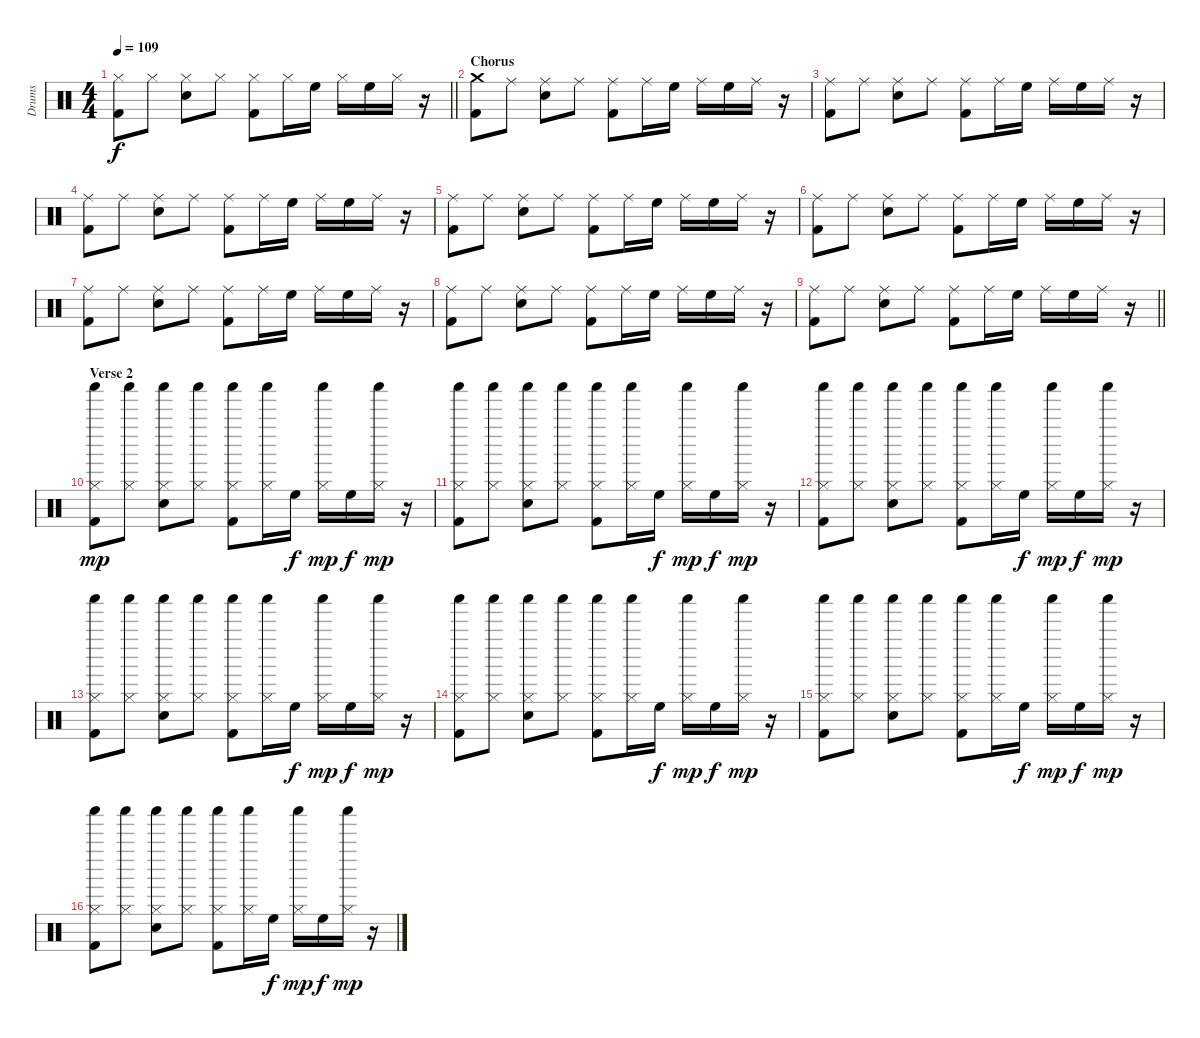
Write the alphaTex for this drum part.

\track ("Drums" "Drums") {instrument percussion}
\staff {score}
\articulation defaults
\ts (4 4)
\tempo 109
\clef neutral
\barLineRight lightlight
\ks c
("Hi-Hat (closed)" "Kick (hit) 2").8{dy f} "Hi-Hat (closed)".8 ("Hi-Hat (closed)" "Electric Snare (hit)").8 "Hi-Hat (closed)".8 ("Hi-Hat (closed)" "Kick (hit) 2").8 "Hi-Hat (closed)".16 "High Floor Tom (hit)".16 "Hi-Hat (closed)".16 "High Floor Tom (hit)".16 "Hi-Hat (closed)".16 r.16 |
\section ("" "Chorus")
("Crash medium (hit)" "Kick (hit) 2").8 "Ride (middle)".8 ("Ride (middle)" "Electric Snare (hit)").8 "Ride (middle)".8 ("Ride (middle)" "Kick (hit) 2").8 "Ride (middle)".16 "High Floor Tom (hit)".16 "Ride (middle)".16 "High Floor Tom (hit)".16 "Ride (middle)".16 r.16 |
("Ride (middle)" "Kick (hit) 2").8 "Ride (middle)".8 ("Ride (middle)" "Electric Snare (hit)").8 "Ride (middle)".8 ("Ride (middle)" "Kick (hit) 2").8 "Ride (middle)".16 "High Floor Tom (hit)".16 "Ride (middle)".16 "High Floor Tom (hit)".16 "Ride (middle)".16 r.16 |
("Ride (middle)" "Kick (hit) 2").8 "Ride (middle)".8 ("Ride (middle)" "Electric Snare (hit)").8 "Ride (middle)".8 ("Ride (middle)" "Kick (hit) 2").8 "Ride (middle)".16 "High Floor Tom (hit)".16 "Ride (middle)".16 "High Floor Tom (hit)".16 "Ride (middle)".16 r.16 |
("Ride (middle)" "Kick (hit) 2").8 "Ride (middle)".8 ("Ride (middle)" "Electric Snare (hit)").8 "Ride (middle)".8 ("Ride (middle)" "Kick (hit) 2").8 "Ride (middle)".16 "High Floor Tom (hit)".16 "Ride (middle)".16 "High Floor Tom (hit)".16 "Ride (middle)".16 r.16 |
("Ride (middle)" "Kick (hit) 2").8 "Ride (middle)".8 ("Ride (middle)" "Electric Snare (hit)").8 "Ride (middle)".8 ("Ride (middle)" "Kick (hit) 2").8 "Ride (middle)".16 "High Floor Tom (hit)".16 "Ride (middle)".16 "High Floor Tom (hit)".16 "Ride (middle)".16 r.16 |
("Ride (middle)" "Kick (hit) 2").8 "Ride (middle)".8 ("Ride (middle)" "Electric Snare (hit)").8 "Ride (middle)".8 ("Ride (middle)" "Kick (hit) 2").8 "Ride (middle)".16 "High Floor Tom (hit)".16 "Ride (middle)".16 "High Floor Tom (hit)".16 "Ride (middle)".16 r.16 |
("Ride (middle)" "Kick (hit) 2").8 "Ride (middle)".8 ("Ride (middle)" "Electric Snare (hit)").8 "Ride (middle)".8 ("Ride (middle)" "Kick (hit) 2").8 "Ride (middle)".16 "High Floor Tom (hit)".16 "Ride (middle)".16 "High Floor Tom (hit)".16 "Ride (middle)".16 r.16 |
\barLineRight lightlight
("Ride (middle)" "Kick (hit) 2").8 "Ride (middle)".8 ("Ride (middle)" "Electric Snare (hit)").8 "Ride (middle)".8 ("Ride (middle)" "Kick (hit) 2").8 "Ride (middle)".16 "High Floor Tom (hit)".16 "Ride (middle)".16 "High Floor Tom (hit)".16 "Ride (middle)".16 r.16 |
\section ("" "Verse 2")
("Hi-Hat (closed)" "Shaker (hit)" "Kick (hit) 2").8{dy mp} ("Hi-Hat (closed)" "Shaker (hit)").8 ("Hi-Hat (closed)" "Shaker (hit)" "Electric Snare (hit)").8 ("Hi-Hat (closed)" "Shaker (hit)").8 ("Hi-Hat (closed)" "Shaker (hit)" "Kick (hit) 2").8 ("Hi-Hat (closed)" "Shaker (hit)").16 "High Floor Tom (hit)".16{dy f} ("Hi-Hat (closed)" "Shaker (hit)").16{dy mp} "High Floor Tom (hit)".16{dy f} ("Hi-Hat (closed)" "Shaker (hit)").16{dy mp} r.16 |
("Hi-Hat (closed)" "Shaker (hit)" "Kick (hit) 2").8 ("Hi-Hat (closed)" "Shaker (hit)").8 ("Hi-Hat (closed)" "Shaker (hit)" "Electric Snare (hit)").8 ("Hi-Hat (closed)" "Shaker (hit)").8 ("Hi-Hat (closed)" "Shaker (hit)" "Kick (hit) 2").8 ("Hi-Hat (closed)" "Shaker (hit)").16 "High Floor Tom (hit)".16{dy f} ("Hi-Hat (closed)" "Shaker (hit)").16{dy mp} "High Floor Tom (hit)".16{dy f} ("Hi-Hat (closed)" "Shaker (hit)").16{dy mp} r.16 |
("Hi-Hat (closed)" "Shaker (hit)" "Kick (hit) 2").8 ("Hi-Hat (closed)" "Shaker (hit)").8 ("Hi-Hat (closed)" "Shaker (hit)" "Electric Snare (hit)").8 ("Hi-Hat (closed)" "Shaker (hit)").8 ("Hi-Hat (closed)" "Shaker (hit)" "Kick (hit) 2").8 ("Hi-Hat (closed)" "Shaker (hit)").16 "High Floor Tom (hit)".16{dy f} ("Hi-Hat (closed)" "Shaker (hit)").16{dy mp} "High Floor Tom (hit)".16{dy f} ("Hi-Hat (closed)" "Shaker (hit)").16{dy mp} r.16 |
("Hi-Hat (closed)" "Shaker (hit)" "Kick (hit) 2").8 ("Hi-Hat (closed)" "Shaker (hit)").8 ("Hi-Hat (closed)" "Shaker (hit)" "Electric Snare (hit)").8 ("Hi-Hat (closed)" "Shaker (hit)").8 ("Hi-Hat (closed)" "Shaker (hit)" "Kick (hit) 2").8 ("Hi-Hat (closed)" "Shaker (hit)").16 "High Floor Tom (hit)".16{dy f} ("Hi-Hat (closed)" "Shaker (hit)").16{dy mp} "High Floor Tom (hit)".16{dy f} ("Hi-Hat (closed)" "Shaker (hit)").16{dy mp} r.16 |
("Hi-Hat (closed)" "Shaker (hit)" "Kick (hit) 2").8 ("Hi-Hat (closed)" "Shaker (hit)").8 ("Hi-Hat (closed)" "Shaker (hit)" "Electric Snare (hit)").8 ("Hi-Hat (closed)" "Shaker (hit)").8 ("Hi-Hat (closed)" "Shaker (hit)" "Kick (hit) 2").8 ("Hi-Hat (closed)" "Shaker (hit)").16 "High Floor Tom (hit)".16{dy f} ("Hi-Hat (closed)" "Shaker (hit)").16{dy mp} "High Floor Tom (hit)".16{dy f} ("Hi-Hat (closed)" "Shaker (hit)").16{dy mp} r.16 |
("Hi-Hat (closed)" "Shaker (hit)" "Kick (hit) 2").8 ("Hi-Hat (closed)" "Shaker (hit)").8 ("Hi-Hat (closed)" "Shaker (hit)" "Electric Snare (hit)").8 ("Hi-Hat (closed)" "Shaker (hit)").8 ("Hi-Hat (closed)" "Shaker (hit)" "Kick (hit) 2").8 ("Hi-Hat (closed)" "Shaker (hit)").16 "High Floor Tom (hit)".16{dy f} ("Hi-Hat (closed)" "Shaker (hit)").16{dy mp} "High Floor Tom (hit)".16{dy f} ("Hi-Hat (closed)" "Shaker (hit)").16{dy mp} r.16 |
("Hi-Hat (closed)" "Shaker (hit)" "Kick (hit) 2").8 ("Hi-Hat (closed)" "Shaker (hit)").8 ("Hi-Hat (closed)" "Shaker (hit)" "Electric Snare (hit)").8 ("Hi-Hat (closed)" "Shaker (hit)").8 ("Hi-Hat (closed)" "Shaker (hit)" "Kick (hit) 2").8 ("Hi-Hat (closed)" "Shaker (hit)").16 "High Floor Tom (hit)".16{dy f} ("Hi-Hat (closed)" "Shaker (hit)").16{dy mp} "High Floor Tom (hit)".16{dy f} ("Hi-Hat (closed)" "Shaker (hit)").16{dy mp} r.16
